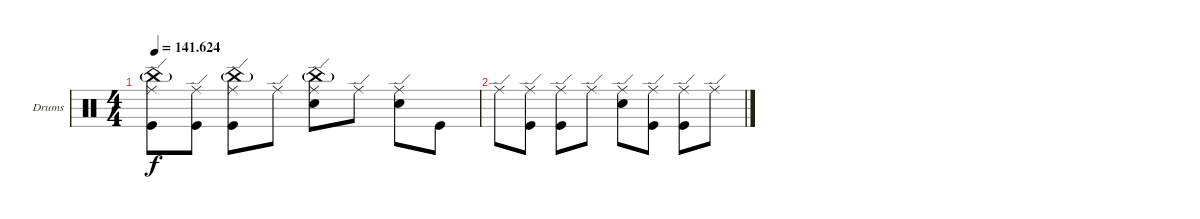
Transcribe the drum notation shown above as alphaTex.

\defaultSystemsLayout 4
\bracketExtendMode groupsimilarinstruments
\firstSystemTrackNameOrientation horizontal
\otherSystemsTrackNameOrientation horizontal
\track ("Drumkit" "Drums") {instrument percussion}
\staff {score}
\articulation defaults
\ts (4 4)
\tempo
141.624
\accidentals auto
\clef neutral
\ottava regular
\simile none
\ks c
("Kick (hit)" "Ride (edge)" "China (hit)"{g}).8{dy f} ("Kick (hit)" "Ride (edge)").8 ("Kick (hit)" "Ride (edge)" "China (hit)"{g}).8 "Ride (edge)".8 ("Snare (hit) 2" "Ride (edge)" "China (hit)"{g}).8 "Ride (edge)".8 ("Ride (edge)" "Snare (hit) 2").8 "Kick (hit)".8 |
"Ride (edge)".8 ("Kick (hit)" "Ride (edge)").8 ("Ride (edge)" "Kick (hit)").8 "Ride (edge)".8 ("Ride (edge)" "Snare (hit) 2").8 ("Kick (hit)" "Ride (edge)").8 ("Ride (edge)" "Kick (hit)").8 "Ride (edge)".8
